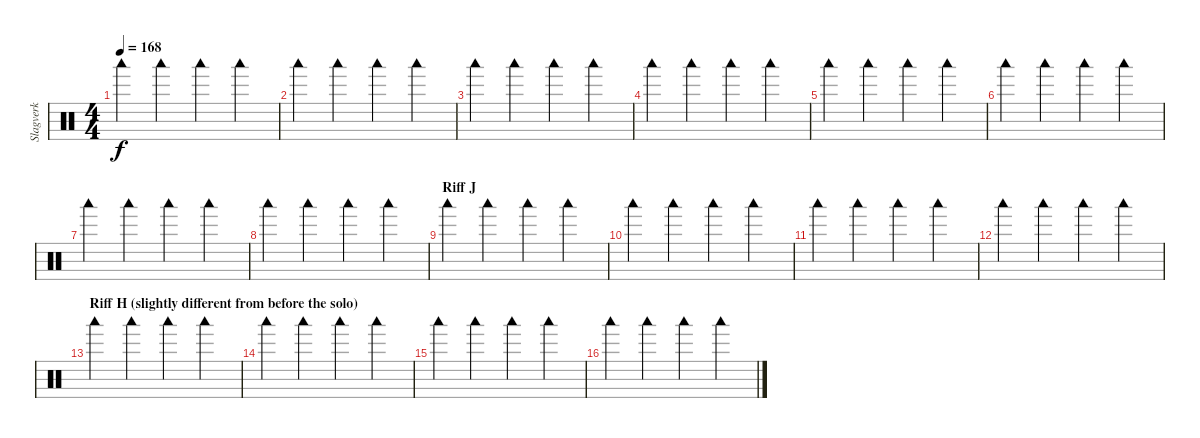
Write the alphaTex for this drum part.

\track ("Slagverk" "Slagverk") {instrument percussion}
\staff {score}
\articulation defaults
\ts (4 4)
\tempo 168
\clef neutral
\ks c "Woodblock low (hit)".4{dy f} "Woodblock low (hit)".4 "Woodblock low (hit)".4 "Woodblock low (hit)".4
|
"Woodblock low (hit)".4 "Woodblock low (hit)".4 "Woodblock low (hit)".4 "Woodblock low (hit)".4 |
"Woodblock low (hit)".4 "Woodblock low (hit)".4 "Woodblock low (hit)".4 "Woodblock low (hit)".4 |
"Woodblock low (hit)".4 "Woodblock low (hit)".4 "Woodblock low (hit)".4 "Woodblock low (hit)".4 |
"Woodblock low (hit)".4 "Woodblock low (hit)".4 "Woodblock low (hit)".4 "Woodblock low (hit)".4 |
"Woodblock low (hit)".4 "Woodblock low (hit)".4 "Woodblock low (hit)".4 "Woodblock low (hit)".4 |
"Woodblock low (hit)".4 "Woodblock low (hit)".4 "Woodblock low (hit)".4 "Woodblock low (hit)".4 |
"Woodblock low (hit)".4 "Woodblock low (hit)".4 "Woodblock low (hit)".4 "Woodblock low (hit)".4 |
\section ("" "Riff J")
"Woodblock low (hit)".4 "Woodblock low (hit)".4 "Woodblock low (hit)".4 "Woodblock low (hit)".4 |
"Woodblock low (hit)".4 "Woodblock low (hit)".4 "Woodblock low (hit)".4 "Woodblock low (hit)".4 |
"Woodblock low (hit)".4 "Woodblock low (hit)".4 "Woodblock low (hit)".4 "Woodblock low (hit)".4 |
"Woodblock low (hit)".4 "Woodblock low (hit)".4 "Woodblock low (hit)".4 "Woodblock low (hit)".4 |
\section ("" "Riff H (slightly different from before the solo)")
"Woodblock low (hit)".4 "Woodblock low (hit)".4 "Woodblock low (hit)".4 "Woodblock low (hit)".4 |
"Woodblock low (hit)".4 "Woodblock low (hit)".4 "Woodblock low (hit)".4 "Woodblock low (hit)".4 |
"Woodblock low (hit)".4 "Woodblock low (hit)".4 "Woodblock low (hit)".4 "Woodblock low (hit)".4 |
"Woodblock low (hit)".4 "Woodblock low (hit)".4 "Woodblock low (hit)".4 "Woodblock low (hit)".4
